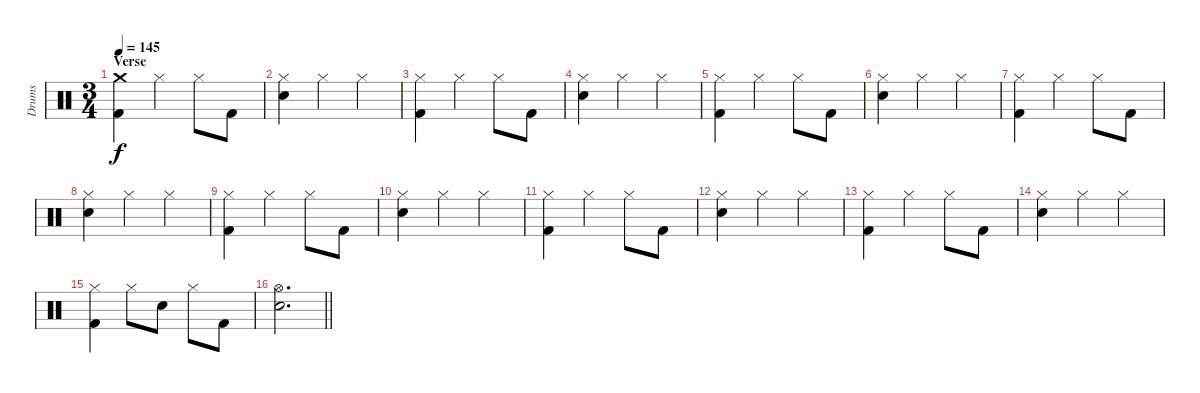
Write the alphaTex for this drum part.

\track ("Drums" "Drums") {instrument percussion}
\staff {score}
\articulation defaults
\ts (3 4)
\section ("" "Verse")
\tempo 145
\clef neutral
\ks c
("Crash medium (hit)" "Kick (hit) 2").4{dy f} "Hi-Hat (closed)".4 "Hi-Hat (closed)".8 "Kick (hit) 2".8 |
("Hi-Hat (closed)" "Electric Snare (hit)").4 "Hi-Hat (closed)".4 "Hi-Hat (closed)".4 |
("Hi-Hat (closed)" "Kick (hit) 2").4 "Hi-Hat (closed)".4 "Hi-Hat (closed)".8 "Kick (hit) 2".8 |
("Hi-Hat (closed)" "Electric Snare (hit)").4 "Hi-Hat (closed)".4 "Hi-Hat (closed)".4 |
("Hi-Hat (closed)" "Kick (hit) 2").4 "Hi-Hat (closed)".4 "Hi-Hat (closed)".8 "Kick (hit) 2".8 |
("Hi-Hat (closed)" "Electric Snare (hit)").4 "Hi-Hat (closed)".4 "Hi-Hat (closed)".4 |
("Hi-Hat (closed)" "Kick (hit) 2").4 "Hi-Hat (closed)".4 "Hi-Hat (closed)".8 "Kick (hit) 2".8 |
("Hi-Hat (closed)" "Electric Snare (hit)").4 "Hi-Hat (closed)".4 "Hi-Hat (closed)".4 |
("Hi-Hat (closed)" "Kick (hit) 2").4 "Hi-Hat (closed)".4 "Hi-Hat (closed)".8 "Kick (hit) 2".8 |
("Hi-Hat (closed)" "Electric Snare (hit)").4 "Hi-Hat (closed)".4 "Hi-Hat (closed)".4 |
("Hi-Hat (closed)" "Kick (hit) 2").4 "Hi-Hat (closed)".4 "Hi-Hat (closed)".8 "Kick (hit) 2".8 |
("Hi-Hat (closed)" "Electric Snare (hit)").4 "Hi-Hat (closed)".4 "Hi-Hat (closed)".4 |
("Hi-Hat (closed)" "Kick (hit) 2").4 "Hi-Hat (closed)".4 "Hi-Hat (closed)".8 "Kick (hit) 2".8 |
("Hi-Hat (closed)" "Electric Snare (hit)").4 "Hi-Hat (closed)".4 "Hi-Hat (closed)".4 |
("Hi-Hat (closed)" "Kick (hit) 2").4 "Hi-Hat (closed)".8 "Electric Snare (hit)".8 "Hi-Hat (closed)".8 "Kick (hit) 2".8 |
\barLineRight lightlight
("Hi-Hat (open)" "Electric Snare (hit)").2{d}
